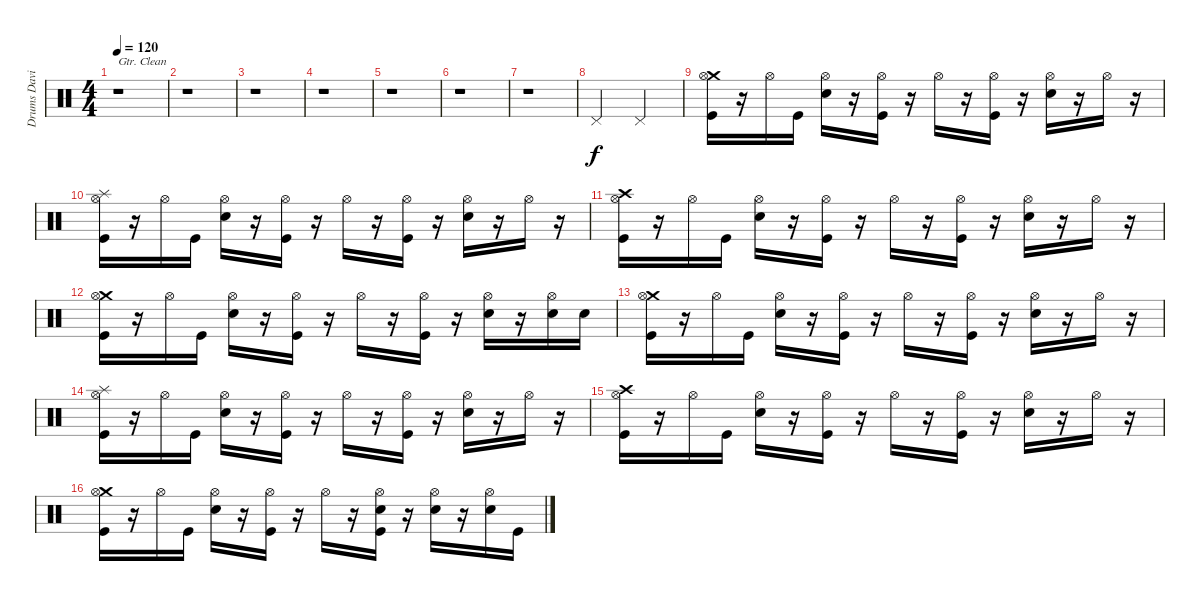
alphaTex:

\track ("Drums David" "Drums Davi") {instrument percussion}
\staff {score}
\articulation defaults
\ts (4 4)
\tempo 120
\clef neutral
\ks c
r.1{txt "Gtr. Clean" dy f} |
r.1 |
r.1 |
r.1 |
r.1 |
r.1 |
r.1 |
"Pedal Hi-Hat (hit)".2 "Pedal Hi-Hat (hit)".2 |
("Crash medium (hit)" "Hi-Hat (open)" "Kick (hit)").16 r.16 "Hi-Hat (open)".16 "Kick (hit)".16 ("Hi-Hat (open)" "Electric Snare (hit)").16 r.16 ("Hi-Hat (open)" "Kick (hit)").16 r.16 "Hi-Hat (open)".16 r.16 ("Hi-Hat (open)" "Kick (hit)").16 r.16 ("Hi-Hat (open)" "Electric Snare (hit)").16 r.16 "Hi-Hat (open)".16 r.16 |
("Splash (hit)" "Hi-Hat (open)" "Kick (hit)").16 r.16 "Hi-Hat (open)".16 "Kick (hit)".16 ("Hi-Hat (open)" "Electric Snare (hit)").16 r.16 ("Hi-Hat (open)" "Kick (hit)").16 r.16 "Hi-Hat (open)".16 r.16 ("Hi-Hat (open)" "Kick (hit)").16 r.16 ("Hi-Hat (open)" "Electric Snare (hit)").16 r.16 "Hi-Hat (open)".16 r.16 |
("Crash high (hit)" "Hi-Hat (open)" "Kick (hit)").16 r.16 "Hi-Hat (open)".16 "Kick (hit)".16 ("Hi-Hat (open)" "Electric Snare (hit)").16 r.16 ("Hi-Hat (open)" "Kick (hit)").16 r.16 "Hi-Hat (open)".16 r.16 ("Hi-Hat (open)" "Kick (hit)").16 r.16 ("Hi-Hat (open)" "Electric Snare (hit)").16 r.16 "Hi-Hat (open)".16 r.16 |
("Crash medium (hit)" "Hi-Hat (open)" "Kick (hit)").16 r.16 "Hi-Hat (open)".16 "Kick (hit)".16 ("Hi-Hat (open)" "Electric Snare (hit)").16 r.16 ("Hi-Hat (open)" "Kick (hit)").16 r.16 "Hi-Hat (open)".16 r.16 ("Hi-Hat (open)" "Kick (hit)").16 r.16 ("Hi-Hat (open)" "Electric Snare (hit)").16 r.16 ("Hi-Hat (open)" "Electric Snare (hit)").16 "Electric Snare (hit)".16 |
("Crash medium (hit)" "Hi-Hat (open)" "Kick (hit)").16 r.16 "Hi-Hat (open)".16 "Kick (hit)".16 ("Hi-Hat (open)" "Electric Snare (hit)").16 r.16 ("Hi-Hat (open)" "Kick (hit)").16 r.16 "Hi-Hat (open)".16 r.16 ("Hi-Hat (open)" "Kick (hit)").16 r.16 ("Hi-Hat (open)" "Electric Snare (hit)").16 r.16 "Hi-Hat (open)".16 r.16 |
("Splash (hit)" "Hi-Hat (open)" "Kick (hit)").16 r.16 "Hi-Hat (open)".16 "Kick (hit)".16 ("Hi-Hat (open)" "Electric Snare (hit)").16 r.16 ("Hi-Hat (open)" "Kick (hit)").16 r.16 "Hi-Hat (open)".16 r.16 ("Hi-Hat (open)" "Kick (hit)").16 r.16 ("Hi-Hat (open)" "Electric Snare (hit)").16 r.16 "Hi-Hat (open)".16 r.16 |
("Crash high (hit)" "Hi-Hat (open)" "Kick (hit)").16 r.16 "Hi-Hat (open)".16 "Kick (hit)".16 ("Hi-Hat (open)" "Electric Snare (hit)").16 r.16 ("Hi-Hat (open)" "Kick (hit)").16 r.16 "Hi-Hat (open)".16 r.16 ("Hi-Hat (open)" "Kick (hit)").16 r.16 ("Hi-Hat (open)" "Electric Snare (hit)").16 r.16 "Hi-Hat (open)".16 r.16 |
("Crash medium (hit)" "Hi-Hat (open)" "Kick (hit)").16 r.16 "Hi-Hat (open)".16 "Kick (hit)".16 ("Hi-Hat (open)" "Electric Snare (hit)").16 r.16 ("Hi-Hat (open)" "Kick (hit)").16 r.16 "Hi-Hat (open)".16 r.16 ("Hi-Hat (open)" "Electric Snare (hit)" "Kick (hit)").16 r.16 ("Hi-Hat (open)" "Electric Snare (hit)").16 r.16 ("Hi-Hat (open)" "Electric Snare (hit)").16 "Kick (hit)".16
